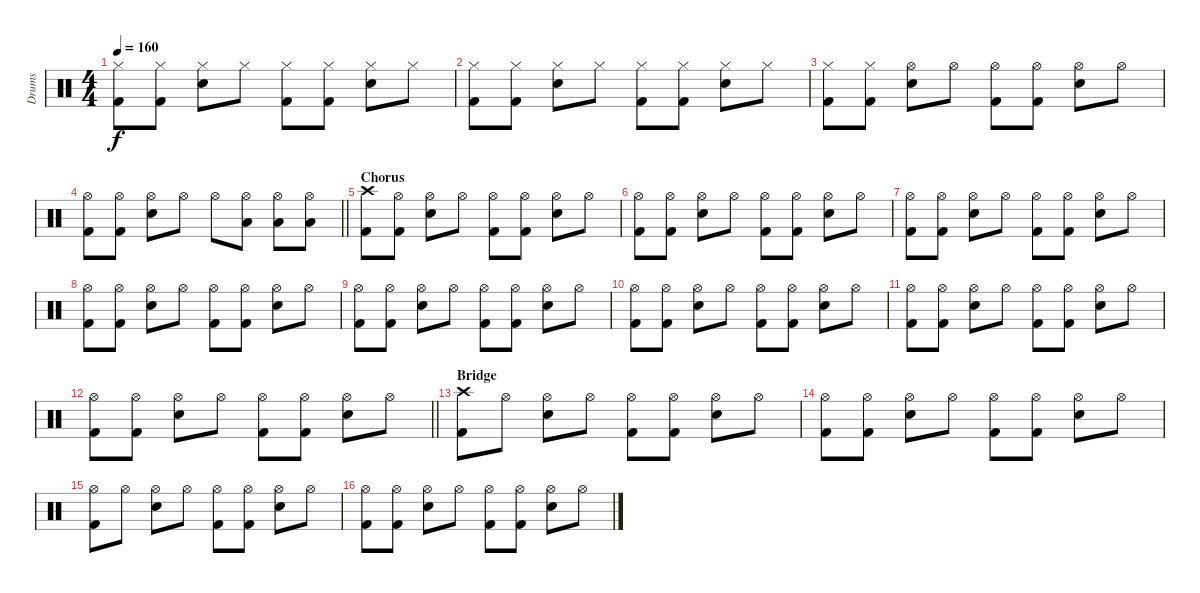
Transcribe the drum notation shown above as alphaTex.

\track ("Drums" "Drums") {instrument percussion}
\staff {score}
\articulation defaults
\ts (4 4)
\tempo 160
\clef neutral
\ks c
("Hi-Hat (closed)" "Kick (hit) 2").8{dy f} ("Hi-Hat (closed)" "Kick (hit) 2").8 ("Hi-Hat (closed)" "Snare (hit) 2").8 "Hi-Hat (closed)".8 ("Hi-Hat (closed)" "Kick (hit) 2").8 ("Hi-Hat (closed)" "Kick (hit) 2").8 ("Hi-Hat (closed)" "Snare (hit) 2").8 "Hi-Hat (closed)".8 |
("Hi-Hat (closed)" "Kick (hit) 2").8 ("Hi-Hat (closed)" "Kick (hit) 2").8 ("Hi-Hat (closed)" "Snare (hit) 2").8 "Hi-Hat (closed)".8 ("Hi-Hat (closed)" "Kick (hit) 2").8 ("Hi-Hat (closed)" "Kick (hit) 2").8 ("Hi-Hat (closed)" "Snare (hit) 2").8 "Hi-Hat (closed)".8 |
("Hi-Hat (closed)" "Kick (hit) 2").8 ("Hi-Hat (closed)" "Kick (hit) 2").8 ("Hi-Hat (open)" "Snare (hit) 2").8 "Hi-Hat (open)".8 ("Hi-Hat (open)" "Kick (hit) 2").8 ("Hi-Hat (open)" "Kick (hit) 2").8 ("Hi-Hat (open)" "Snare (hit) 2").8 "Hi-Hat (open)".8 |
\barLineRight lightlight
("Hi-Hat (open)" "Kick (hit) 2").8 ("Hi-Hat (open)" "Kick (hit) 2").8 ("Hi-Hat (open)" "Snare (hit) 2").8 "Hi-Hat (open)".8 "Hi-Hat (open)".8 ("Hi-Hat (open)" "Low Tom (hit)").8 ("Hi-Hat (open)" "Low Tom (hit)").8 ("Hi-Hat (open)" "Low Tom (hit)").8 |
\section ("" "Chorus")
("Crash high (hit)" "Kick (hit) 2").8 ("Hi-Hat (open)" "Kick (hit) 2").8 ("Hi-Hat (open)" "Snare (hit) 2").8 "Hi-Hat (open)".8 ("Hi-Hat (open)" "Kick (hit) 2").8 ("Hi-Hat (open)" "Kick (hit) 2").8 ("Hi-Hat (open)" "Snare (hit) 2").8 "Hi-Hat (open)".8 |
("Hi-Hat (open)" "Kick (hit) 2").8 ("Hi-Hat (open)" "Kick (hit) 2").8 ("Hi-Hat (open)" "Snare (hit) 2").8 "Hi-Hat (open)".8 ("Hi-Hat (open)" "Kick (hit) 2").8 ("Hi-Hat (open)" "Kick (hit) 2").8 ("Hi-Hat (open)" "Snare (hit) 2").8 "Hi-Hat (open)".8 |
("Hi-Hat (open)" "Kick (hit) 2").8 ("Hi-Hat (open)" "Kick (hit) 2").8 ("Hi-Hat (open)" "Snare (hit) 2").8 "Hi-Hat (open)".8 ("Hi-Hat (open)" "Kick (hit) 2").8 ("Hi-Hat (open)" "Kick (hit) 2").8 ("Hi-Hat (open)" "Snare (hit) 2").8 "Hi-Hat (open)".8 |
("Hi-Hat (open)" "Kick (hit) 2").8 ("Hi-Hat (open)" "Kick (hit) 2").8 ("Hi-Hat (open)" "Snare (hit) 2").8 "Hi-Hat (open)".8 ("Hi-Hat (open)" "Kick (hit) 2").8 ("Hi-Hat (open)" "Kick (hit) 2").8 ("Hi-Hat (open)" "Snare (hit) 2").8 "Hi-Hat (open)".8 |
("Hi-Hat (open)" "Kick (hit) 2").8 ("Hi-Hat (open)" "Kick (hit) 2").8 ("Hi-Hat (open)" "Snare (hit) 2").8 "Hi-Hat (open)".8 ("Hi-Hat (open)" "Kick (hit) 2").8 ("Hi-Hat (open)" "Kick (hit) 2").8 ("Hi-Hat (open)" "Snare (hit) 2").8 "Hi-Hat (open)".8 |
("Hi-Hat (open)" "Kick (hit) 2").8 ("Hi-Hat (open)" "Kick (hit) 2").8 ("Hi-Hat (open)" "Snare (hit) 2").8 "Hi-Hat (open)".8 ("Hi-Hat (open)" "Kick (hit) 2").8 ("Hi-Hat (open)" "Kick (hit) 2").8 ("Hi-Hat (open)" "Snare (hit) 2").8 "Hi-Hat (open)".8 |
("Hi-Hat (open)" "Kick (hit) 2").8 ("Hi-Hat (open)" "Kick (hit) 2").8 ("Hi-Hat (open)" "Snare (hit) 2").8 "Hi-Hat (open)".8 ("Hi-Hat (open)" "Kick (hit) 2").8 ("Hi-Hat (open)" "Kick (hit) 2").8 ("Hi-Hat (open)" "Snare (hit) 2").8 "Hi-Hat (open)".8 |
\barLineRight lightlight
("Hi-Hat (open)" "Kick (hit) 2").8 ("Hi-Hat (open)" "Kick (hit) 2").8 ("Hi-Hat (open)" "Snare (hit) 2").8 "Hi-Hat (open)".8 ("Hi-Hat (open)" "Kick (hit) 2").8 ("Hi-Hat (open)" "Kick (hit) 2").8 ("Hi-Hat (open)" "Snare (hit) 2").8 "Hi-Hat (open)".8 |
\section ("" "Bridge")
("Crash high (hit)" "Kick (hit) 2").8 "Hi-Hat (open)".8 ("Hi-Hat (open)" "Snare (hit) 2").8 "Hi-Hat (open)".8 ("Hi-Hat (open)" "Kick (hit) 2").8 ("Hi-Hat (open)" "Kick (hit) 2").8 ("Hi-Hat (open)" "Snare (hit) 2").8 "Hi-Hat (open)".8 |
("Hi-Hat (open)" "Kick (hit) 2").8 ("Hi-Hat (open)" "Kick (hit) 2").8 ("Hi-Hat (open)" "Snare (hit) 2").8 "Hi-Hat (open)".8 ("Hi-Hat (open)" "Kick (hit) 2").8 ("Hi-Hat (open)" "Kick (hit) 2").8 ("Hi-Hat (open)" "Snare (hit) 2").8 "Hi-Hat (open)".8 |
("Hi-Hat (open)" "Kick (hit) 2").8 "Hi-Hat (open)".8 ("Hi-Hat (open)" "Snare (hit) 2").8 "Hi-Hat (open)".8 ("Hi-Hat (open)" "Kick (hit) 2").8 ("Hi-Hat (open)" "Kick (hit) 2").8 ("Hi-Hat (open)" "Snare (hit) 2").8 "Hi-Hat (open)".8 |
("Hi-Hat (open)" "Kick (hit) 2").8 ("Hi-Hat (open)" "Kick (hit) 2").8 ("Hi-Hat (open)" "Snare (hit) 2").8 "Hi-Hat (open)".8 ("Hi-Hat (open)" "Kick (hit) 2").8 ("Hi-Hat (open)" "Kick (hit) 2").8 ("Hi-Hat (open)" "Snare (hit) 2").8 "Hi-Hat (open)".8
